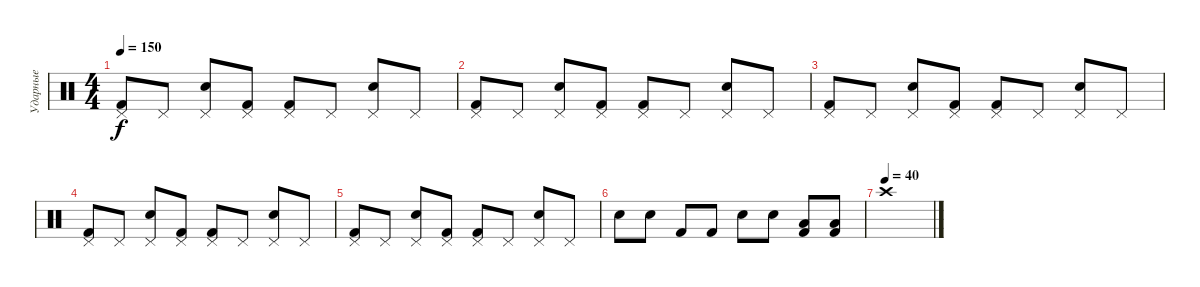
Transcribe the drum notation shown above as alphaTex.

\track ("Ударные" "Ударные") {instrument percussion}
\staff {score}
\articulation defaults
\ts (4 4)
\tempo 150
\clef neutral
\ks c
("Pedal Hi-Hat (hit)" "Kick (hit) 2").8{dy f} "Pedal Hi-Hat (hit)".8 ("Pedal Hi-Hat (hit)" "Snare (hit) 2").8 ("Pedal Hi-Hat (hit)" "Kick (hit) 2").8 ("Pedal Hi-Hat (hit)" "Kick (hit) 2").8 "Pedal Hi-Hat (hit)".8 ("Pedal Hi-Hat (hit)" "Snare (hit) 2").8 "Pedal Hi-Hat (hit)".8 |
("Pedal Hi-Hat (hit)" "Kick (hit) 2").8 "Pedal Hi-Hat (hit)".8 ("Pedal Hi-Hat (hit)" "Snare (hit) 2").8 ("Pedal Hi-Hat (hit)" "Kick (hit) 2").8 ("Pedal Hi-Hat (hit)" "Kick (hit) 2").8 "Pedal Hi-Hat (hit)".8 ("Pedal Hi-Hat (hit)" "Snare (hit) 2").8 "Pedal Hi-Hat (hit)".8 |
("Pedal Hi-Hat (hit)" "Kick (hit) 2").8 "Pedal Hi-Hat (hit)".8 ("Pedal Hi-Hat (hit)" "Snare (hit) 2").8 ("Pedal Hi-Hat (hit)" "Kick (hit) 2").8 ("Pedal Hi-Hat (hit)" "Kick (hit) 2").8 "Pedal Hi-Hat (hit)".8 ("Pedal Hi-Hat (hit)" "Snare (hit) 2").8 "Pedal Hi-Hat (hit)".8 |
("Pedal Hi-Hat (hit)" "Kick (hit) 2").8 "Pedal Hi-Hat (hit)".8 ("Pedal Hi-Hat (hit)" "Snare (hit) 2").8 ("Pedal Hi-Hat (hit)" "Kick (hit) 2").8 ("Pedal Hi-Hat (hit)" "Kick (hit) 2").8 "Pedal Hi-Hat (hit)".8 ("Pedal Hi-Hat (hit)" "Snare (hit) 2").8 "Pedal Hi-Hat (hit)".8 |
("Pedal Hi-Hat (hit)" "Kick (hit) 2").8 "Pedal Hi-Hat (hit)".8 ("Pedal Hi-Hat (hit)" "Snare (hit) 2").8 ("Pedal Hi-Hat (hit)" "Kick (hit) 2").8 ("Pedal Hi-Hat (hit)" "Kick (hit) 2").8 "Pedal Hi-Hat (hit)".8 ("Pedal Hi-Hat (hit)" "Snare (hit) 2").8 "Pedal Hi-Hat (hit)".8 |
"Snare (hit) 2".8 "Snare (hit) 2".8 "Kick (hit) 2".8 "Kick (hit) 2".8 "Snare (hit) 2".8 "Snare (hit) 2".8 ("Low Floor Tom (hit)" "Kick (hit) 2").8 ("Low Floor Tom (hit)" "Kick (hit) 2").8 |
\tempo (40)
"Crash high (hit)".1
